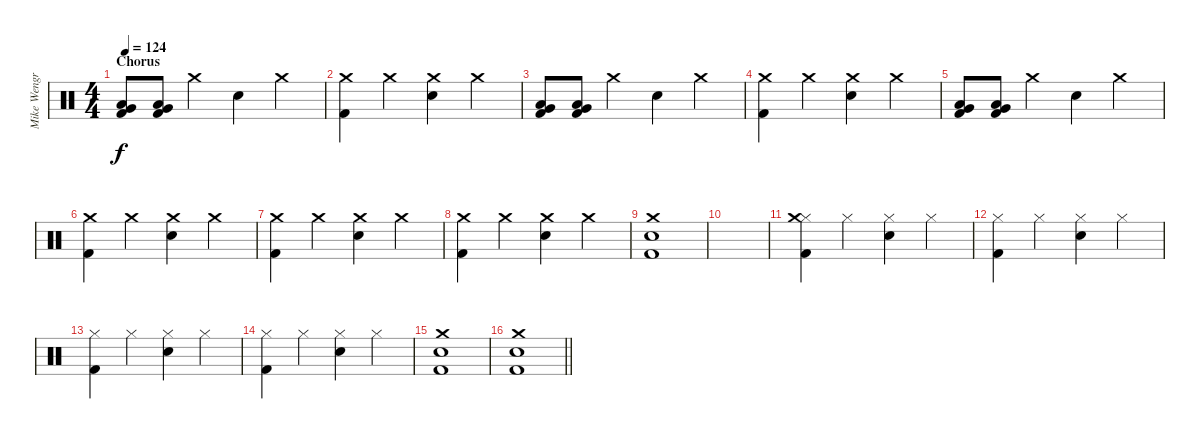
\track ("Mike Wengren" "Mike Wengr") {instrument percussion}
\staff {score}
\articulation defaults
\ts (4 4)
\section ("" "Chorus")
\tempo 124
\clef neutral
\ks c
("Kick (hit) 2" "Very Low Tom (hit)" "Low Tom (hit)").8{dy f} ("Kick (hit) 2" "Very Low Tom (hit)" "Low Tom (hit)").8 "Crash medium (hit)".4 "Electric Snare (hit)".4 "Crash medium (hit)".4 |
("Kick (hit) 2" "Crash medium (hit)").4 "Crash medium (hit)".4 ("Electric Snare (hit)" "Crash medium (hit)").4 "Crash medium (hit)".4 |
("Kick (hit) 2" "Very Low Tom (hit)" "Low Tom (hit)").8 ("Kick (hit) 2" "Very Low Tom (hit)" "Low Tom (hit)").8 "Crash medium (hit)".4 "Electric Snare (hit)".4 "Crash medium (hit)".4 |
("Kick (hit) 2" "Crash medium (hit)").4 "Crash medium (hit)".4 ("Electric Snare (hit)" "Crash medium (hit)").4 "Crash medium (hit)".4 |
("Kick (hit) 2" "Very Low Tom (hit)" "Low Tom (hit)").8 ("Kick (hit) 2" "Very Low Tom (hit)" "Low Tom (hit)").8 "Crash medium (hit)".4 "Electric Snare (hit)".4 "Crash medium (hit)".4 |
("Kick (hit) 2" "Crash medium (hit)").4 "Crash medium (hit)".4 ("Electric Snare (hit)" "Crash medium (hit)").4 "Crash medium (hit)".4 |
("Kick (hit) 2" "Crash medium (hit)").4 "Crash medium (hit)".4 ("Electric Snare (hit)" "Crash medium (hit)").4 "Crash medium (hit)".4 |
("Kick (hit) 2" "Crash medium (hit)").4 "Crash medium (hit)".4 ("Electric Snare (hit)" "Crash medium (hit)").4 "Crash medium (hit)".4 |
("Kick (hit) 2" "Electric Snare (hit)" "Crash medium (hit)").1 |
|
("Kick (hit) 2" "Hi-Hat (closed)" "Crash medium (hit)").4 "Hi-Hat (closed)".4 ("Electric Snare (hit)" "Hi-Hat (closed)").4 "Hi-Hat (closed)".4 |
("Kick (hit) 2" "Hi-Hat (closed)").4 "Hi-Hat (closed)".4 ("Electric Snare (hit)" "Hi-Hat (closed)").4 "Hi-Hat (closed)".4 |
("Kick (hit) 2" "Hi-Hat (closed)").4 "Hi-Hat (closed)".4 ("Electric Snare (hit)" "Hi-Hat (closed)").4 "Hi-Hat (closed)".4 |
("Kick (hit) 2" "Hi-Hat (closed)").4 "Hi-Hat (closed)".4 ("Electric Snare (hit)" "Hi-Hat (closed)").4 "Hi-Hat (closed)".4 |
("Kick (hit) 2" "Electric Snare (hit)" "Crash medium (hit)").1 |
\barLineRight lightlight
("Kick (hit) 2" "Electric Snare (hit)" "Crash medium (hit)").1
